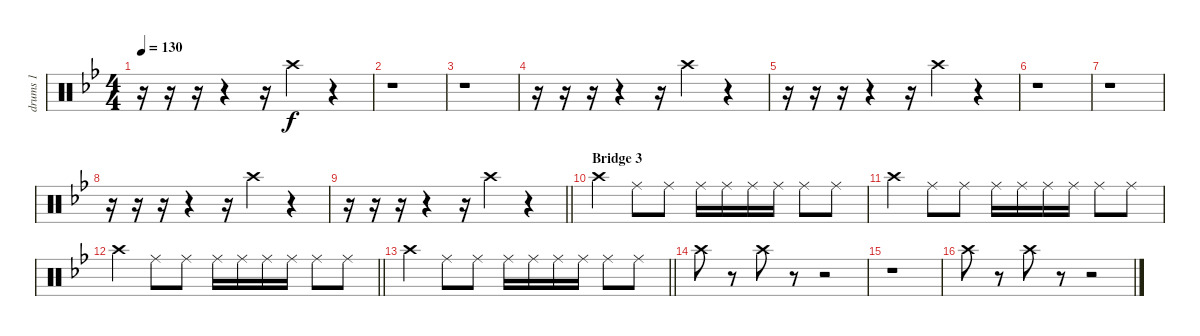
\track ("drums 1" "drums 1") {instrument percussion}
\staff {score}
\articulation defaults
\ts (4 4)
\tempo 130
\clef neutral
\ks bb
r.16{dy f} r.16 r.16 r.4 r.16 "Crash high (hit)".4 r.4 |
r.1 |
r.1 |
r.16 r.16 r.16 r.4 r.16 "Crash high (hit)".4 r.4 |
r.16 r.16 r.16 r.4 r.16 "Crash high (hit)".4 r.4 |
r.1 |
r.1 |
r.16 r.16 r.16 r.4 r.16 "Crash high (hit)".4 r.4 |
\barLineRight lightlight
r.16 r.16 r.16 r.4 r.16 "Crash high (hit)".4 r.4 |
\section ("" "Bridge 3")
"Crash high (hit)".4 "Ride (middle)".8 "Ride (middle)".8 "Ride (middle)".16 "Ride (middle)".16 "Ride (middle)".16 "Ride (middle)".16 "Ride (middle)".8 "Ride (middle)".8 |
"Crash high (hit)".4 "Ride (middle)".8 "Ride (middle)".8 "Ride (middle)".16 "Ride (middle)".16 "Ride (middle)".16 "Ride (middle)".16 "Ride (middle)".8 "Ride (middle)".8 |
\barLineRight lightlight "Crash high (hit)".4 "Ride (middle)".8 "Ride (middle)".8 "Ride (middle)".16 "Ride (middle)".16 "Ride (middle)".16 "Ride (middle)".16 "Ride (middle)".8 "Ride (middle)".8
|
\barLineRight lightlight "Crash high (hit)".4 "Ride (middle)".8 "Ride (middle)".8 "Ride (middle)".16 "Ride (middle)".16 "Ride (middle)".16 "Ride (middle)".16 "Ride (middle)".8 "Ride (middle)".8
|
"Crash high (hit)".8 r.8 "Crash high (hit)".8 r.8 r.2 |
r.1 |
"Crash high (hit)".8 r.8 "Crash high (hit)".8 r.8 r.2
